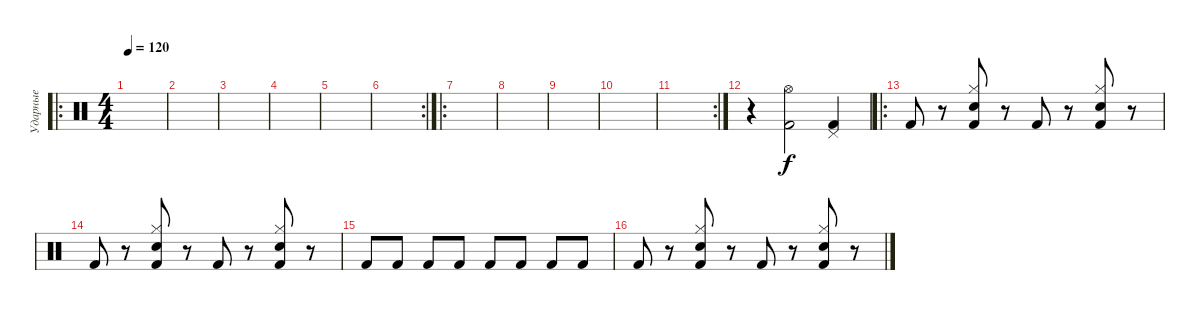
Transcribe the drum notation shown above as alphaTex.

\track ("Ударные" "Ударные") {instrument percussion}
\staff {score}
\articulation defaults
\ro
\ts (4 4)
\tempo 120
\clef neutral
\ks c
|
|
|
|
|
\rc 2
|
\ro
|
|
|
|
\rc 2
|
r.4 ("Kick (hit) 2" "Hi-Hat (open)").2 ("Kick (hit) 2" "Pedal Hi-Hat (hit)").4 |
\ro "Kick (hit) 2".8
r.8 ("Kick (hit) 2" "Hi-Hat (closed)" "Electric Snare (hit)").8 r.8 "Kick (hit) 2".8 r.8 ("Kick (hit) 2" "Hi-Hat (closed)" "Electric Snare (hit)").8 r.8 |
"Kick (hit) 2".8 r.8 ("Kick (hit) 2" "Hi-Hat (closed)" "Electric Snare (hit)").8 r.8 "Kick (hit) 2".8 r.8 ("Kick (hit) 2" "Hi-Hat (closed)" "Electric Snare (hit)").8 r.8 |
"Kick (hit) 2".8 "Kick (hit) 2".8 "Kick (hit) 2".8 "Kick (hit) 2".8 "Kick (hit) 2".8 "Kick (hit) 2".8 "Kick (hit) 2".8 "Kick (hit) 2".8 |
"Kick (hit) 2".8 r.8 ("Kick (hit) 2" "Hi-Hat (closed)" "Electric Snare (hit)").8 r.8 "Kick (hit) 2".8 r.8 ("Kick (hit) 2" "Hi-Hat (closed)" "Electric Snare (hit)").8 r.8
